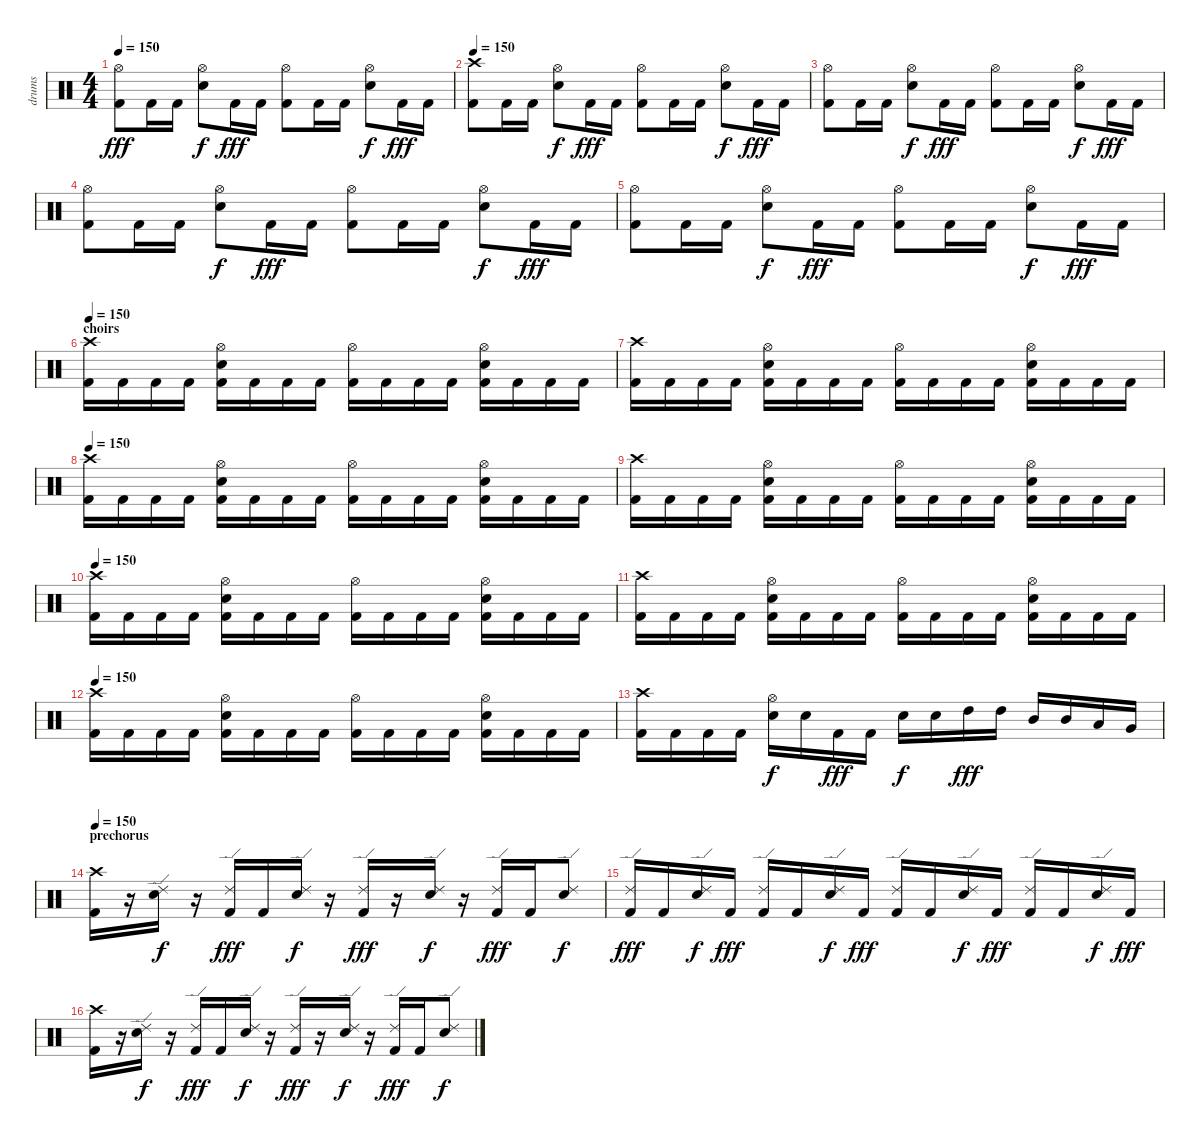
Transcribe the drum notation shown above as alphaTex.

\track ("drums" "drums") {instrument percussion}
\staff {score}
\articulation defaults
\ts (4 4)
\tempo 150
\clef neutral
\ks c
("Hi-Hat (open)" "Kick (hit) 2").8{dy fff} "Kick (hit) 2".16 "Kick (hit) 2".16 ("Hi-Hat (open)" "Snare (hit) 2").8{dy f} "Kick (hit) 2".16{dy fff} "Kick (hit) 2".16 ("Hi-Hat (open)" "Kick (hit) 2").8 "Kick (hit) 2".16 "Kick (hit) 2".16 ("Hi-Hat (open)" "Snare (hit) 2").8{dy f} "Kick (hit) 2".16{dy fff} "Kick (hit) 2".16 |
\tempo 150
("Crash high (hit)" "Kick (hit) 2").8 "Kick (hit) 2".16 "Kick (hit) 2".16 ("Hi-Hat (open)" "Snare (hit) 2").8{dy f} "Kick (hit) 2".16{dy fff} "Kick (hit) 2".16 ("Hi-Hat (open)" "Kick (hit) 2").8 "Kick (hit) 2".16 "Kick (hit) 2".16 ("Hi-Hat (open)" "Snare (hit) 2").8{dy f} "Kick (hit) 2".16{dy fff} "Kick (hit) 2".16 |
("Hi-Hat (open)" "Kick (hit) 2").8 "Kick (hit) 2".16 "Kick (hit) 2".16 ("Hi-Hat (open)" "Snare (hit) 2").8{dy f} "Kick (hit) 2".16{dy fff} "Kick (hit) 2".16 ("Hi-Hat (open)" "Kick (hit) 2").8 "Kick (hit) 2".16 "Kick (hit) 2".16 ("Hi-Hat (open)" "Snare (hit) 2").8{dy f} "Kick (hit) 2".16{dy fff} "Kick (hit) 2".16 |
("Hi-Hat (open)" "Kick (hit) 2").8 "Kick (hit) 2".16 "Kick (hit) 2".16 ("Hi-Hat (open)" "Snare (hit) 2").8{dy f} "Kick (hit) 2".16{dy fff} "Kick (hit) 2".16 ("Hi-Hat (open)" "Kick (hit) 2").8 "Kick (hit) 2".16 "Kick (hit) 2".16 ("Hi-Hat (open)" "Snare (hit) 2").8{dy f} "Kick (hit) 2".16{dy fff} "Kick (hit) 2".16 |
("Hi-Hat (open)" "Kick (hit) 2").8 "Kick (hit) 2".16 "Kick (hit) 2".16 ("Hi-Hat (open)" "Snare (hit) 2").8{dy f} "Kick (hit) 2".16{dy fff} "Kick (hit) 2".16 ("Hi-Hat (open)" "Kick (hit) 2").8 "Kick (hit) 2".16 "Kick (hit) 2".16 ("Hi-Hat (open)" "Snare (hit) 2").8{dy f} "Kick (hit) 2".16{dy fff} "Kick (hit) 2".16 |
\section ("" "choirs")
\tempo 150
("Crash high (hit)" "Kick (hit) 2").16 "Kick (hit) 2".16 "Kick (hit) 2".16 "Kick (hit) 2".16 ("Hi-Hat (open)" "Snare (hit) 2" "Kick (hit) 2").16 "Kick (hit) 2".16 "Kick (hit) 2".16 "Kick (hit) 2".16 ("Hi-Hat (open)" "Kick (hit) 2").16 "Kick (hit) 2".16 "Kick (hit) 2".16 "Kick (hit) 2".16 ("Hi-Hat (open)" "Snare (hit) 2" "Kick (hit) 2").16 "Kick (hit) 2".16 "Kick (hit) 2".16 "Kick (hit) 2".16 |
("Crash high (hit)" "Kick (hit) 2").16 "Kick (hit) 2".16 "Kick (hit) 2".16 "Kick (hit) 2".16 ("Hi-Hat (open)" "Snare (hit) 2" "Kick (hit) 2").16 "Kick (hit) 2".16 "Kick (hit) 2".16 "Kick (hit) 2".16 ("Hi-Hat (open)" "Kick (hit) 2").16 "Kick (hit) 2".16 "Kick (hit) 2".16 "Kick (hit) 2".16 ("Hi-Hat (open)" "Snare (hit) 2" "Kick (hit) 2").16 "Kick (hit) 2".16 "Kick (hit) 2".16 "Kick (hit) 2".16 |
\tempo 150
("Crash high (hit)" "Kick (hit) 2").16 "Kick (hit) 2".16 "Kick (hit) 2".16 "Kick (hit) 2".16 ("Hi-Hat (open)" "Snare (hit) 2" "Kick (hit) 2").16 "Kick (hit) 2".16 "Kick (hit) 2".16 "Kick (hit) 2".16 ("Hi-Hat (open)" "Kick (hit) 2").16 "Kick (hit) 2".16 "Kick (hit) 2".16 "Kick (hit) 2".16 ("Hi-Hat (open)" "Snare (hit) 2" "Kick (hit) 2").16 "Kick (hit) 2".16 "Kick (hit) 2".16 "Kick (hit) 2".16 |
("Crash high (hit)" "Kick (hit) 2").16 "Kick (hit) 2".16 "Kick (hit) 2".16 "Kick (hit) 2".16 ("Hi-Hat (open)" "Snare (hit) 2" "Kick (hit) 2").16 "Kick (hit) 2".16 "Kick (hit) 2".16 "Kick (hit) 2".16 ("Hi-Hat (open)" "Kick (hit) 2").16 "Kick (hit) 2".16 "Kick (hit) 2".16 "Kick (hit) 2".16 ("Hi-Hat (open)" "Snare (hit) 2" "Kick (hit) 2").16 "Kick (hit) 2".16 "Kick (hit) 2".16 "Kick (hit) 2".16 |
\tempo 150
("Crash high (hit)" "Kick (hit) 2").16 "Kick (hit) 2".16 "Kick (hit) 2".16 "Kick (hit) 2".16 ("Hi-Hat (open)" "Snare (hit) 2" "Kick (hit) 2").16 "Kick (hit) 2".16 "Kick (hit) 2".16 "Kick (hit) 2".16 ("Hi-Hat (open)" "Kick (hit) 2").16 "Kick (hit) 2".16 "Kick (hit) 2".16 "Kick (hit) 2".16 ("Hi-Hat (open)" "Snare (hit) 2" "Kick (hit) 2").16 "Kick (hit) 2".16 "Kick (hit) 2".16 "Kick (hit) 2".16 |
("Crash high (hit)" "Kick (hit) 2").16 "Kick (hit) 2".16 "Kick (hit) 2".16 "Kick (hit) 2".16 ("Hi-Hat (open)" "Snare (hit) 2" "Kick (hit) 2").16 "Kick (hit) 2".16 "Kick (hit) 2".16 "Kick (hit) 2".16 ("Hi-Hat (open)" "Kick (hit) 2").16 "Kick (hit) 2".16 "Kick (hit) 2".16 "Kick (hit) 2".16 ("Hi-Hat (open)" "Snare (hit) 2" "Kick (hit) 2").16 "Kick (hit) 2".16 "Kick (hit) 2".16 "Kick (hit) 2".16 |
\tempo 150
("Crash high (hit)" "Kick (hit) 2").16 "Kick (hit) 2".16 "Kick (hit) 2".16 "Kick (hit) 2".16 ("Hi-Hat (open)" "Snare (hit) 2" "Kick (hit) 2").16 "Kick (hit) 2".16 "Kick (hit) 2".16 "Kick (hit) 2".16 ("Hi-Hat (open)" "Kick (hit) 2").16 "Kick (hit) 2".16 "Kick (hit) 2".16 "Kick (hit) 2".16 ("Hi-Hat (open)" "Snare (hit) 2" "Kick (hit) 2").16 "Kick (hit) 2".16 "Kick (hit) 2".16 "Kick (hit) 2".16 |
("Crash high (hit)" "Kick (hit) 2").16 "Kick (hit) 2".16 "Kick (hit) 2".16 "Kick (hit) 2".16 ("Hi-Hat (open)" "Snare (hit) 2").16{dy f} "Snare (hit) 2".16 "Kick (hit) 2".16{dy fff} "Kick (hit) 2".16 "Snare (hit) 2".16{dy f} "Snare (hit) 2".16 "High Tom (hit)".16{dy fff} "High Tom (hit)".16 "Mid Tom (hit)".16 "Mid Tom (hit)".16 "Low Tom (hit)".16 "Very Low Tom (hit)".16 |
\section ("" "prechorus")
\tempo 150
("Crash high (hit)" "Kick (hit) 2").16 r.16 ("Ride (edge) 2" "Snare (hit) 2").16{dy f} r.16 ("Ride (edge) 2" "Kick (hit) 2").16{dy fff} "Kick (hit) 2".16 ("Ride (edge) 2" "Snare (hit) 2").16{dy f} r.16 ("Ride (edge) 2" "Kick (hit) 2").16{dy fff} r.16 ("Ride (edge) 2" "Snare (hit) 2").16{dy f} r.16 ("Ride (edge) 2" "Kick (hit) 2").16{dy fff} "Kick (hit) 2".16 ("Ride (edge) 2" "Snare (hit) 2").8{dy f} |
("Ride (edge) 2" "Kick (hit) 2").16{dy fff} "Kick (hit) 2".16 ("Ride (edge) 2" "Snare (hit) 2").16{dy f} "Kick (hit) 2".16{dy fff} ("Ride (edge) 2" "Kick (hit) 2").16 "Kick (hit) 2".16 ("Ride (edge) 2" "Snare (hit) 2").16{dy f} "Kick (hit) 2".16{dy fff} ("Ride (edge) 2" "Kick (hit) 2").16 "Kick (hit) 2".16 ("Ride (edge) 2" "Snare (hit) 2").16{dy f} "Kick (hit) 2".16{dy fff} ("Ride (edge) 2" "Kick (hit) 2").16 "Kick (hit) 2".16 ("Ride (edge) 2" "Snare (hit) 2").16{dy f} "Kick (hit) 2".16{dy fff} |
("Crash high (hit)" "Kick (hit) 2").16 r.16 ("Ride (edge) 2" "Snare (hit) 2").16{dy f} r.16 ("Ride (edge) 2" "Kick (hit) 2").16{dy fff} "Kick (hit) 2".16 ("Ride (edge) 2" "Snare (hit) 2").16{dy f} r.16 ("Ride (edge) 2" "Kick (hit) 2").16{dy fff} r.16 ("Ride (edge) 2" "Snare (hit) 2").16{dy f} r.16 ("Ride (edge) 2" "Kick (hit) 2").16{dy fff} "Kick (hit) 2".16 ("Ride (edge) 2" "Snare (hit) 2").8{dy f}
